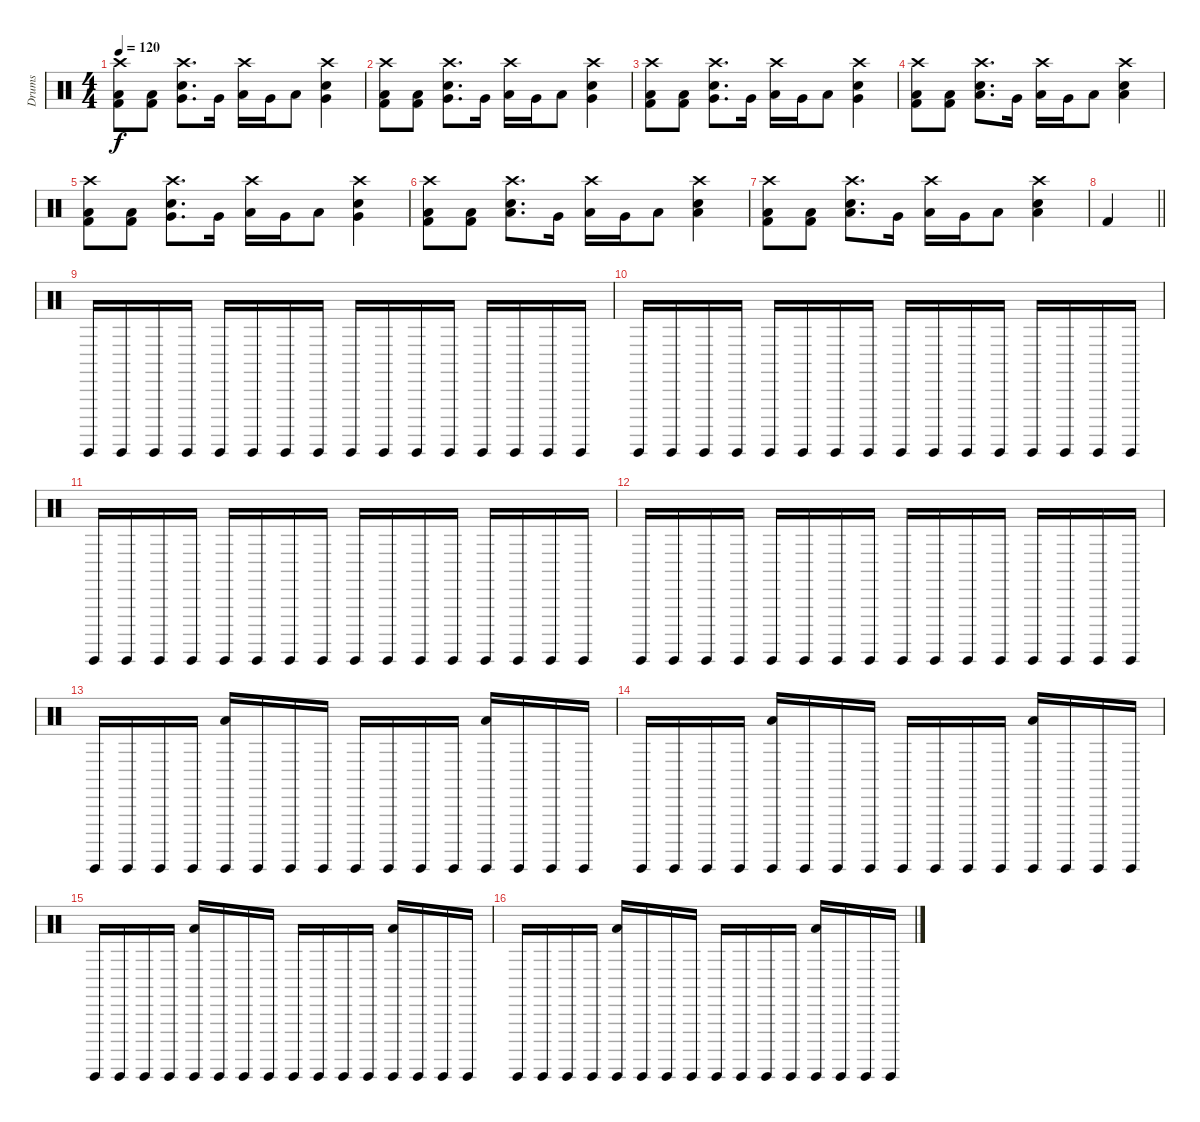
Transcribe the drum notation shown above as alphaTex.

\track ("Drums" "Drums") {instrument percussion}
\staff {score}
\articulation defaults
\ts (4 4)
\tempo 120
\clef neutral
\ks c
("Low Floor Tom (hit)" "Kick (hit) 2" "Crash high (hit)").8{dy f} ("Low Floor Tom (hit)" "Kick (hit) 2").8 ("Very Low Tom (hit)" "Electric Snare (hit)" "Crash high (hit)").8{d} "Very Low Tom (hit)".16 ("Low Tom (hit)" "Crash high (hit)").16 "Very Low Tom (hit)".16 "Low Tom (hit)".8 ("Electric Snare (hit)" "Very Low Tom (hit)" "Crash high (hit)").4 |
("Low Floor Tom (hit)" "Kick (hit) 2" "Crash high (hit)").8 ("Low Floor Tom (hit)" "Kick (hit) 2").8 ("Very Low Tom (hit)" "Electric Snare (hit)" "Crash high (hit)").8{d} "Very Low Tom (hit)".16 ("Low Tom (hit)" "Crash high (hit)").16 "Very Low Tom (hit)".16 "Low Tom (hit)".8 ("Electric Snare (hit)" "Very Low Tom (hit)" "Crash high (hit)").4 |
("Low Floor Tom (hit)" "Kick (hit) 2" "Crash high (hit)").8 ("Low Floor Tom (hit)" "Kick (hit) 2").8 ("Very Low Tom (hit)" "Electric Snare (hit)" "Crash high (hit)").8{d} "Very Low Tom (hit)".16 ("Low Tom (hit)" "Crash high (hit)").16 "Very Low Tom (hit)".16 "Low Tom (hit)".8 ("Electric Snare (hit)" "Very Low Tom (hit)" "Crash high (hit)").4 |
("Low Floor Tom (hit)" "Kick (hit) 2" "Crash high (hit)").8 ("Low Floor Tom (hit)" "Kick (hit) 2").8 ("Low Tom (hit)" "Electric Snare (hit)" "Crash high (hit)").8{d} "Very Low Tom (hit)".16 ("Low Tom (hit)" "Crash high (hit)").16 "Very Low Tom (hit)".16 "Low Tom (hit)".8 ("Electric Snare (hit)" "Low Tom (hit)" "Crash high (hit)").4 |
("Low Floor Tom (hit)" "Kick (hit) 2" "Crash high (hit)").8 ("Low Floor Tom (hit)" "Kick (hit) 2").8 ("Very Low Tom (hit)" "Electric Snare (hit)" "Crash high (hit)").8{d} "Very Low Tom (hit)".16 ("Low Tom (hit)" "Crash high (hit)").16 "Very Low Tom (hit)".16 "Low Tom (hit)".8 ("Electric Snare (hit)" "Very Low Tom (hit)" "Crash high (hit)").4 |
("Low Floor Tom (hit)" "Kick (hit) 2" "Crash high (hit)").8 ("Low Floor Tom (hit)" "Kick (hit) 2").8 ("Low Tom (hit)" "Electric Snare (hit)" "Crash high (hit)").8{d} "Very Low Tom (hit)".16 ("Low Tom (hit)" "Crash high (hit)").16 "Very Low Tom (hit)".16 "Low Tom (hit)".8 ("Electric Snare (hit)" "Low Tom (hit)" "Crash high (hit)").4 |
("Low Floor Tom (hit)" "Kick (hit) 2" "Crash high (hit)").8 ("Low Floor Tom (hit)" "Kick (hit) 2").8 ("Low Tom (hit)" "Electric Snare (hit)" "Crash high (hit)").8{d} "Very Low Tom (hit)".16 ("Low Tom (hit)" "Crash high (hit)").16 "Very Low Tom (hit)".16 "Low Tom (hit)".8 ("Electric Snare (hit)" "Low Tom (hit)" "Crash high (hit)").4 |
\barLineRight lightlight "Kick (hit) 2".4
|
"Guiro (hit)".16 "Guiro (hit)".16 "Guiro (hit)".16 "Guiro (hit)".16 "Guiro (hit)".16 "Guiro (hit)".16 "Guiro (hit)".16 "Guiro (hit)".16 "Guiro (hit)".16 "Guiro (hit)".16 "Guiro (hit)".16 "Guiro (hit)".16 "Guiro (hit)".16 "Guiro (hit)".16 "Guiro (hit)".16 "Guiro (hit)".16 |
"Guiro (hit)".16 "Guiro (hit)".16 "Guiro (hit)".16 "Guiro (hit)".16 "Guiro (hit)".16 "Guiro (hit)".16 "Guiro (hit)".16 "Guiro (hit)".16 "Guiro (hit)".16 "Guiro (hit)".16 "Guiro (hit)".16 "Guiro (hit)".16 "Guiro (hit)".16 "Guiro (hit)".16 "Guiro (hit)".16 "Guiro (hit)".16 |
"Guiro (hit)".16 "Guiro (hit)".16 "Guiro (hit)".16 "Guiro (hit)".16 "Guiro (hit)".16 "Guiro (hit)".16 "Guiro (hit)".16 "Guiro (hit)".16 "Guiro (hit)".16 "Guiro (hit)".16 "Guiro (hit)".16 "Guiro (hit)".16 "Guiro (hit)".16 "Guiro (hit)".16 "Guiro (hit)".16 "Guiro (hit)".16 |
"Guiro (hit)".16 "Guiro (hit)".16 "Guiro (hit)".16 "Guiro (hit)".16 "Guiro (hit)".16 "Guiro (hit)".16 "Guiro (hit)".16 "Guiro (hit)".16 "Guiro (hit)".16 "Guiro (hit)".16 "Guiro (hit)".16 "Guiro (hit)".16 "Guiro (hit)".16 "Guiro (hit)".16 "Guiro (hit)".16 "Guiro (hit)".16 |
"Guiro (hit)".16 "Guiro (hit)".16 "Guiro (hit)".16 "Guiro (hit)".16 ("Guiro (hit)" "Low Tom (hit)").16 "Guiro (hit)".16 "Guiro (hit)".16 "Guiro (hit)".16 "Guiro (hit)".16 "Guiro (hit)".16 "Guiro (hit)".16 "Guiro (hit)".16 ("Guiro (hit)" "Low Tom (hit)").16 "Guiro (hit)".16 "Guiro (hit)".16 "Guiro (hit)".16 |
"Guiro (hit)".16 "Guiro (hit)".16 "Guiro (hit)".16 "Guiro (hit)".16 ("Guiro (hit)" "Low Tom (hit)").16 "Guiro (hit)".16 "Guiro (hit)".16 "Guiro (hit)".16 "Guiro (hit)".16 "Guiro (hit)".16 "Guiro (hit)".16 "Guiro (hit)".16 ("Guiro (hit)" "Low Tom (hit)").16 "Guiro (hit)".16 "Guiro (hit)".16 "Guiro (hit)".16 |
"Guiro (hit)".16 "Guiro (hit)".16 "Guiro (hit)".16 "Guiro (hit)".16 ("Guiro (hit)" "Low Tom (hit)").16 "Guiro (hit)".16 "Guiro (hit)".16 "Guiro (hit)".16 "Guiro (hit)".16 "Guiro (hit)".16 "Guiro (hit)".16 "Guiro (hit)".16 ("Guiro (hit)" "Low Tom (hit)").16 "Guiro (hit)".16 "Guiro (hit)".16 "Guiro (hit)".16 |
"Guiro (hit)".16 "Guiro (hit)".16 "Guiro (hit)".16 "Guiro (hit)".16 ("Guiro (hit)" "Low Tom (hit)").16 "Guiro (hit)".16 "Guiro (hit)".16 "Guiro (hit)".16 "Guiro (hit)".16 "Guiro (hit)".16 "Guiro (hit)".16 "Guiro (hit)".16 ("Guiro (hit)" "Low Tom (hit)").16 "Guiro (hit)".16 "Guiro (hit)".16 "Guiro (hit)".16
